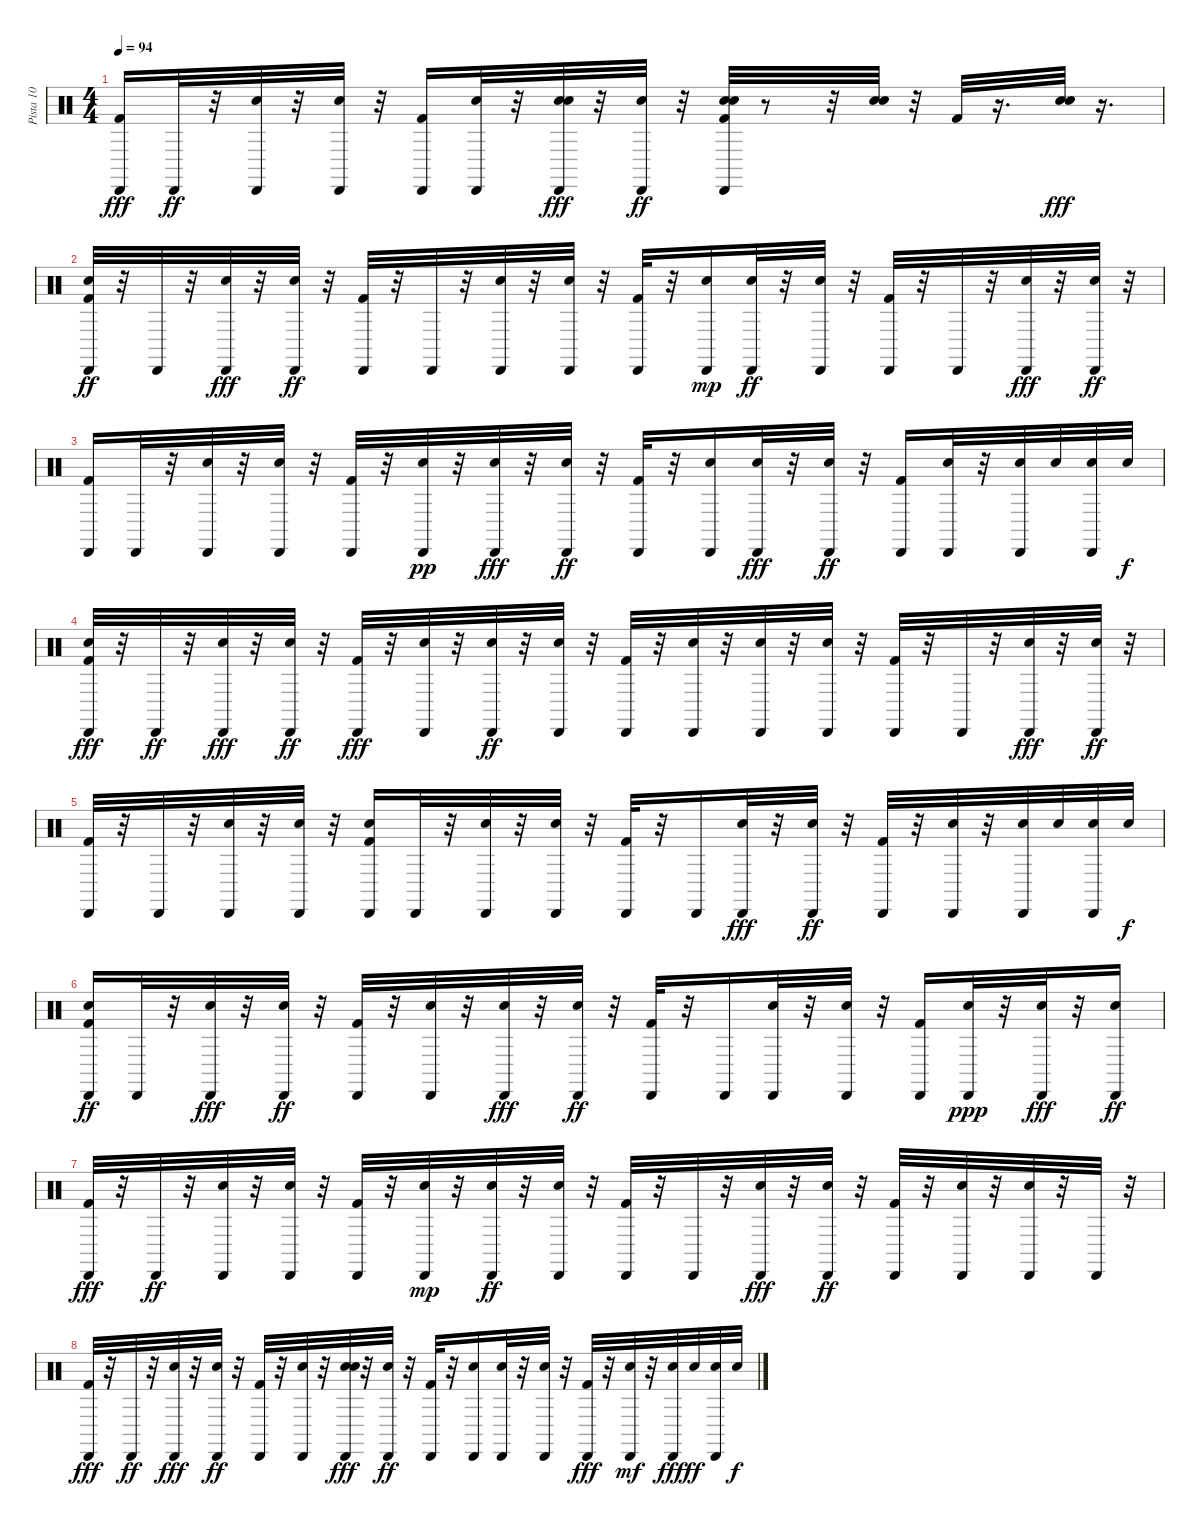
\track ("Pista 10" "Pista 10") {instrument percussion}
\staff {score}
\articulation defaults
\ts (4 4)
\tempo 94
\clef neutral
\ks c
("Cabasa (hit)" "Kick (hit) 2").16{dy fff} "Cabasa (hit)".32{dy ff} r.32 ("Snare (hit) 2" "Cabasa (hit)").32 r.32 ("Electric Snare (hit)" "Cabasa (hit)").32 r.32 ("Cabasa (hit)" "Kick (hit) 2").16 ("Cabasa (hit)" "Electric Snare (hit)").32 r.32 ("Cabasa (hit)" "Electric Snare (hit)" "Snare (hit) 2").32{dy fff} r.32 ("Electric Snare (hit)" "Cabasa (hit)").32{dy ff} r.32 ("Electric Snare (hit)" "Kick (hit) 2" "Snare (hit) 2" "Cabasa (hit)").32 r.8 r.32 ("Electric Snare (hit)" "Snare (hit) 2").32 r.32 "Kick (hit) 2".32 r.16{d} ("Electric Snare (hit)" "Snare (hit) 2").32{dy fff} r.16{d} |
("Kick (hit) 2" "Snare (hit) 2" "Cabasa (hit)").32{dy ff} r.32 "Cabasa (hit)".32 r.32 ("Cabasa (hit)" "Snare (hit) 2").32{dy fff} r.32 ("Cabasa (hit)" "Electric Snare (hit)").32{dy ff} r.32 ("Kick (hit) 2" "Cabasa (hit)").32 r.32 "Cabasa (hit)".32 r.32 ("Snare (hit) 2" "Cabasa (hit)").32 r.32 ("Cabasa (hit)" "Electric Snare (hit)").32 r.32 ("Cabasa (hit)" "Kick (hit) 2").32 r.32 ("Cabasa (hit)" "Electric Snare (hit)").16{dy mp} ("Snare (hit) 2" "Cabasa (hit)").32{dy ff} r.32 ("Electric Snare (hit)" "Cabasa (hit)").32 r.32 ("Kick (hit) 2" "Cabasa (hit)").32 r.32 "Cabasa (hit)".32 r.32 ("Cabasa (hit)" "Snare (hit) 2").32{dy fff} r.32 ("Cabasa (hit)" "Electric Snare (hit)").32{dy ff} r.32 |
("Cabasa (hit)" "Kick (hit) 2").16 "Cabasa (hit)".32 r.32 ("Snare (hit) 2" "Cabasa (hit)").32 r.32 ("Electric Snare (hit)" "Cabasa (hit)").32 r.32 ("Cabasa (hit)" "Kick (hit) 2").32 r.32 ("Cabasa (hit)" "Electric Snare (hit)").32{dy pp} r.32 ("Cabasa (hit)" "Snare (hit) 2").32{dy fff} r.32 ("Electric Snare (hit)" "Cabasa (hit)").32{dy ff} r.32 ("Kick (hit) 2" "Cabasa (hit)").32 r.32 ("Electric Snare (hit)" "Cabasa (hit)").16 ("Cabasa (hit)" "Snare (hit) 2").32{dy fff} r.32 ("Cabasa (hit)" "Electric Snare (hit)").32{dy ff} r.32 ("Cabasa (hit)" "Kick (hit) 2").16 ("Electric Snare (hit)" "Cabasa (hit)").32 r.32 ("Snare (hit) 2" "Cabasa (hit)").32 "Electric Snare (hit)".32 ("Snare (hit) 2" "Cabasa (hit)").32 "Electric Snare (hit)".32{dy f} |
("Cabasa (hit)" "Snare (hit) 2" "Kick (hit) 2").32{dy fff} r.32 "Cabasa (hit)".32{dy ff} r.32 ("Cabasa (hit)" "Snare (hit) 2").32{dy fff} r.32 ("Electric Snare (hit)" "Cabasa (hit)").32{dy ff} r.32 ("Kick (hit) 2" "Cabasa (hit)").32{dy fff} r.32 ("Electric Snare (hit)" "Cabasa (hit)").32 r.32 ("Snare (hit) 2" "Cabasa (hit)").32{dy ff} r.32 ("Cabasa (hit)" "Electric Snare (hit)").32 r.32 ("Cabasa (hit)" "Kick (hit) 2").32 r.32 ("Cabasa (hit)" "Electric Snare (hit)").32 r.32 ("Snare (hit) 2" "Cabasa (hit)").32 r.32 ("Electric Snare (hit)" "Cabasa (hit)").32 r.32 ("Kick (hit) 2" "Cabasa (hit)").32 r.32 "Cabasa (hit)".32 r.32 ("Cabasa (hit)" "Snare (hit) 2").32{dy fff} r.32 ("Cabasa (hit)" "Electric Snare (hit)").32{dy ff} r.32 |
("Kick (hit) 2" "Cabasa (hit)").32 r.32 "Cabasa (hit)".32 r.32 ("Snare (hit) 2" "Cabasa (hit)").32 r.32 ("Cabasa (hit)" "Electric Snare (hit)").32 r.32 ("Cabasa (hit)" "Snare (hit) 2" "Kick (hit) 2").16 "Cabasa (hit)".32 r.32 ("Snare (hit) 2" "Cabasa (hit)").32 r.32 ("Electric Snare (hit)" "Cabasa (hit)").32 r.32 ("Kick (hit) 2" "Cabasa (hit)").32 r.32 "Cabasa (hit)".16 ("Cabasa (hit)" "Snare (hit) 2").32{dy fff} r.32 ("Cabasa (hit)" "Electric Snare (hit)").32{dy ff} r.32 ("Cabasa (hit)" "Kick (hit) 2").32 r.32 ("Electric Snare (hit)" "Cabasa (hit)").32 r.32 ("Snare (hit) 2" "Cabasa (hit)").32 "Electric Snare (hit)".32 ("Snare (hit) 2" "Cabasa (hit)").32 "Electric Snare (hit)".32{dy f} |
("Cabasa (hit)" "Snare (hit) 2" "Kick (hit) 2").16{dy ff} "Cabasa (hit)".32 r.32 ("Cabasa (hit)" "Snare (hit) 2").32{dy fff} r.32 ("Electric Snare (hit)" "Cabasa (hit)").32{dy ff} r.32 ("Kick (hit) 2" "Cabasa (hit)").32 r.32 ("Electric Snare (hit)" "Cabasa (hit)").32 r.32 ("Cabasa (hit)" "Snare (hit) 2").32{dy fff} r.32 ("Cabasa (hit)" "Electric Snare (hit)").32{dy ff} r.32 ("Cabasa (hit)" "Kick (hit) 2").32 r.32 "Cabasa (hit)".16 ("Snare (hit) 2" "Cabasa (hit)").32 r.32 ("Electric Snare (hit)" "Cabasa (hit)").32 r.32 ("Cabasa (hit)" "Kick (hit) 2").16 ("Cabasa (hit)" "Electric Snare (hit)").32{dy ppp} r.32 ("Cabasa (hit)" "Snare (hit) 2").32{dy fff} r.32 ("Cabasa (hit)" "Electric Snare (hit)").16{dy ff} |
("Kick (hit) 2" "Cabasa (hit)").32{dy fff} r.32 "Cabasa (hit)".32{dy ff} r.32 ("Snare (hit) 2" "Cabasa (hit)").32 r.32 ("Cabasa (hit)" "Electric Snare (hit)").32 r.32 ("Cabasa (hit)" "Kick (hit) 2").32 r.32 ("Cabasa (hit)" "Electric Snare (hit)").32{dy mp} r.32 ("Snare (hit) 2" "Cabasa (hit)").32{dy ff} r.32 ("Electric Snare (hit)" "Cabasa (hit)").32 r.32 ("Kick (hit) 2" "Cabasa (hit)").32 r.32 "Cabasa (hit)".32 r.32 ("Cabasa (hit)" "Snare (hit) 2").32{dy fff} r.32 ("Cabasa (hit)" "Electric Snare (hit)").32{dy ff} r.32 ("Kick (hit) 2" "Cabasa (hit)").32 r.32 ("Electric Snare (hit)" "Cabasa (hit)").32 r.32 ("Snare (hit) 2" "Cabasa (hit)").32 r.32 "Cabasa (hit)".32 r.32 |
("Cabasa (hit)" "Kick (hit) 2").32{dy fff} r.32 "Cabasa (hit)".32{dy ff} r.32 ("Cabasa (hit)" "Snare (hit) 2").32{dy fff} r.32 ("Electric Snare (hit)" "Cabasa (hit)").32{dy ff} r.32 ("Kick (hit) 2" "Cabasa (hit)").32 r.32 ("Electric Snare (hit)" "Cabasa (hit)").32 r.32 ("Cabasa (hit)" "Electric Snare (hit)" "Snare (hit) 2").32{dy fff} r.32 ("Cabasa (hit)" "Electric Snare (hit)").32{dy ff} r.32 ("Cabasa (hit)" "Kick (hit) 2").32 r.32 ("Electric Snare (hit)" "Cabasa (hit)").16 ("Snare (hit) 2" "Cabasa (hit)").32 r.32 ("Electric Snare (hit)" "Cabasa (hit)").32 r.32 ("Cabasa (hit)" "Kick (hit) 2").32{dy fff} r.32 ("Cabasa (hit)" "Electric Snare (hit)").32{dy mf} r.32 ("Cabasa (hit)" "Snare (hit) 2").32{dy fff} "Electric Snare (hit)".32{dy ff} ("Snare (hit) 2" "Cabasa (hit)").32 "Electric Snare (hit)".32{dy f}
